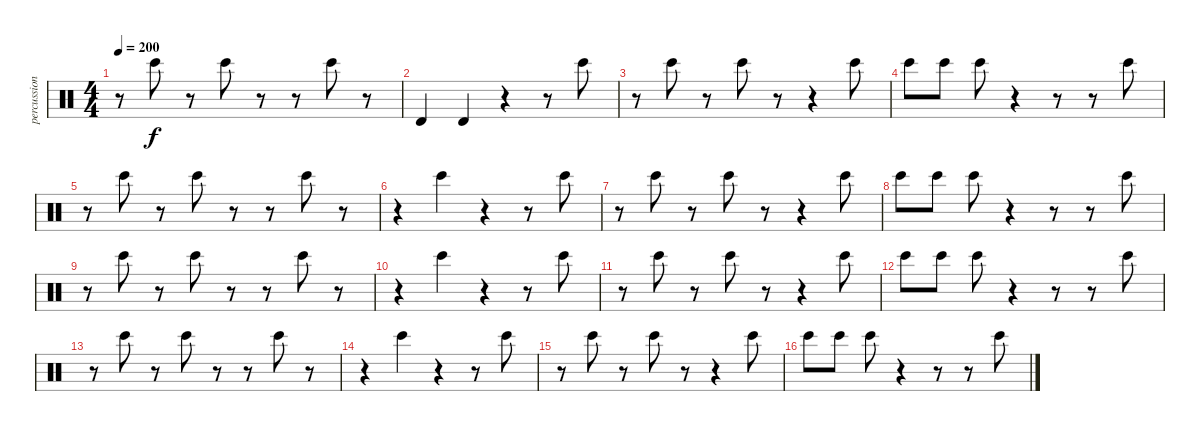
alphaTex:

\track ("percussion" "percussion") {instrument percussion}
\staff {score}
\articulation defaults
\ts (4 4)
\tempo 200
\clef neutral
\ks c
r.8{dy f} "Bongo High (hit)".8 r.8 "Bongo High (hit)".8 r.8 r.8 "Bongo High (hit)".8 r.8 |
"Timbale high (hit)".4{volume 16} "Timbale high (hit)".4 r.4{volume 13} r.8 "Bongo High (hit)".8 |
r.8 "Bongo High (hit)".8 r.8 "Bongo High (hit)".8 r.8 r.4 "Bongo High (hit)".8 |
"Bongo High (hit)".8 "Bongo High (hit)".8 "Bongo High (hit)".8 r.4 r.8 r.8 "Bongo High (hit)".8 |
r.8 "Bongo High (hit)".8 r.8 "Bongo High (hit)".8 r.8 r.8 "Bongo High (hit)".8 r.8 |
r.4 "Bongo High (hit)".4 r.4 r.8 "Bongo High (hit)".8 |
r.8 "Bongo High (hit)".8 r.8 "Bongo High (hit)".8 r.8 r.4 "Bongo High (hit)".8 |
"Bongo High (hit)".8 "Bongo High (hit)".8 "Bongo High (hit)".8 r.4 r.8 r.8 "Bongo High (hit)".8 |
r.8 "Bongo High (hit)".8 r.8 "Bongo High (hit)".8 r.8 r.8 "Bongo High (hit)".8 r.8 |
r.4 "Bongo High (hit)".4 r.4 r.8 "Bongo High (hit)".8 |
r.8 "Bongo High (hit)".8 r.8 "Bongo High (hit)".8 r.8 r.4 "Bongo High (hit)".8 |
"Bongo High (hit)".8 "Bongo High (hit)".8 "Bongo High (hit)".8 r.4 r.8 r.8 "Bongo High (hit)".8 |
r.8 "Bongo High (hit)".8 r.8 "Bongo High (hit)".8 r.8 r.8 "Bongo High (hit)".8 r.8 |
r.4 "Bongo High (hit)".4 r.4 r.8 "Bongo High (hit)".8 |
r.8 "Bongo High (hit)".8 r.8 "Bongo High (hit)".8 r.8 r.4 "Bongo High (hit)".8 |
"Bongo High (hit)".8 "Bongo High (hit)".8 "Bongo High (hit)".8 r.4 r.8 r.8 "Bongo High (hit)".8
